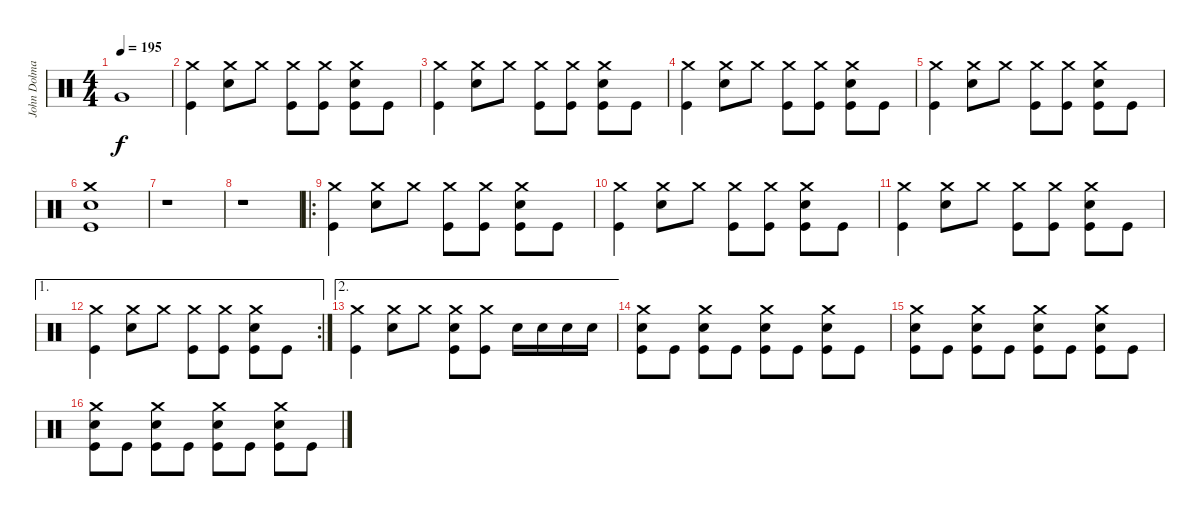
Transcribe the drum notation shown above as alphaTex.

\track ("John Dolmayan" "John Dolma") {instrument percussion}
\staff {score}
\articulation defaults
\ts (4 4)
\tempo 195
\clef neutral
\ks c "Very Low Tom (hit)".1{dy f}
|
("Crash medium (hit)" "Kick (hit)").4 ("Crash medium (hit)" "Snare (hit) 2").8 "Crash medium (hit)".8 ("Crash medium (hit)" "Kick (hit)").8 ("Crash medium (hit)" "Kick (hit)").8 ("Crash medium (hit)" "Snare (hit) 2" "Kick (hit)").8 "Kick (hit)".8 |
("Crash medium (hit)" "Kick (hit)").4 ("Crash medium (hit)" "Snare (hit) 2").8 "Crash medium (hit)".8 ("Crash medium (hit)" "Kick (hit)").8 ("Crash medium (hit)" "Kick (hit)").8 ("Crash medium (hit)" "Snare (hit) 2" "Kick (hit)").8 "Kick (hit)".8 |
("Crash medium (hit)" "Kick (hit)").4 ("Crash medium (hit)" "Snare (hit) 2").8 "Crash medium (hit)".8 ("Crash medium (hit)" "Kick (hit)").8 ("Crash medium (hit)" "Kick (hit)").8 ("Crash medium (hit)" "Snare (hit) 2" "Kick (hit)").8 "Kick (hit)".8 |
("Crash medium (hit)" "Kick (hit)").4 ("Crash medium (hit)" "Snare (hit) 2").8 "Crash medium (hit)".8 ("Crash medium (hit)" "Kick (hit)").8 ("Crash medium (hit)" "Kick (hit)").8 ("Crash medium (hit)" "Snare (hit) 2" "Kick (hit)").8 "Kick (hit)".8 |
("Crash medium (hit)" "Snare (hit) 2" "Kick (hit)").1 |
r.1 |
r.1 |
\ro
("Crash medium (hit)" "Kick (hit)").4 ("Crash medium (hit)" "Snare (hit) 2").8 "Crash medium (hit)".8 ("Crash medium (hit)" "Kick (hit)").8 ("Crash medium (hit)" "Kick (hit)").8 ("Crash medium (hit)" "Snare (hit) 2" "Kick (hit)").8 "Kick (hit)".8 |
("Crash medium (hit)" "Kick (hit)").4 ("Crash medium (hit)" "Snare (hit) 2").8 "Crash medium (hit)".8 ("Crash medium (hit)" "Kick (hit)").8 ("Crash medium (hit)" "Kick (hit)").8 ("Crash medium (hit)" "Snare (hit) 2" "Kick (hit)").8 "Kick (hit)".8 |
("Crash medium (hit)" "Kick (hit)").4 ("Crash medium (hit)" "Snare (hit) 2").8 "Crash medium (hit)".8 ("Crash medium (hit)" "Kick (hit)").8 ("Crash medium (hit)" "Kick (hit)").8 ("Crash medium (hit)" "Snare (hit) 2" "Kick (hit)").8 "Kick (hit)".8 |
\ae 1
\rc 2
("Crash medium (hit)" "Kick (hit)").4 ("Crash medium (hit)" "Snare (hit) 2").8 "Crash medium (hit)".8 ("Crash medium (hit)" "Kick (hit)").8 ("Crash medium (hit)" "Kick (hit)").8 ("Crash medium (hit)" "Snare (hit) 2" "Kick (hit)").8 "Kick (hit)".8 |
\ae 2
("Crash medium (hit)" "Kick (hit)").4 ("Crash medium (hit)" "Snare (hit) 2").8 "Crash medium (hit)".8 ("Crash medium (hit)" "Snare (hit) 2" "Kick (hit)").8 ("Crash medium (hit)" "Kick (hit)").8 "Snare (hit) 2".16 "Snare (hit) 2".16 "Snare (hit) 2".16 "Snare (hit) 2".16 |
("Crash medium (hit)" "Snare (hit) 2" "Kick (hit)").8 "Kick (hit)".8 ("Crash medium (hit)" "Snare (hit) 2" "Kick (hit)").8 "Kick (hit)".8 ("Crash medium (hit)" "Snare (hit) 2" "Kick (hit)").8 "Kick (hit)".8 ("Crash medium (hit)" "Snare (hit) 2" "Kick (hit)").8 "Kick (hit)".8 |
("Crash medium (hit)" "Snare (hit) 2" "Kick (hit)").8 "Kick (hit)".8 ("Crash medium (hit)" "Snare (hit) 2" "Kick (hit)").8 "Kick (hit)".8 ("Crash medium (hit)" "Snare (hit) 2" "Kick (hit)").8 "Kick (hit)".8 ("Crash medium (hit)" "Snare (hit) 2" "Kick (hit)").8 "Kick (hit)".8 |
("Crash medium (hit)" "Snare (hit) 2" "Kick (hit)").8 "Kick (hit)".8 ("Crash medium (hit)" "Snare (hit) 2" "Kick (hit)").8 "Kick (hit)".8 ("Crash medium (hit)" "Snare (hit) 2" "Kick (hit)").8 "Kick (hit)".8 ("Crash medium (hit)" "Snare (hit) 2" "Kick (hit)").8 "Kick (hit)".8
